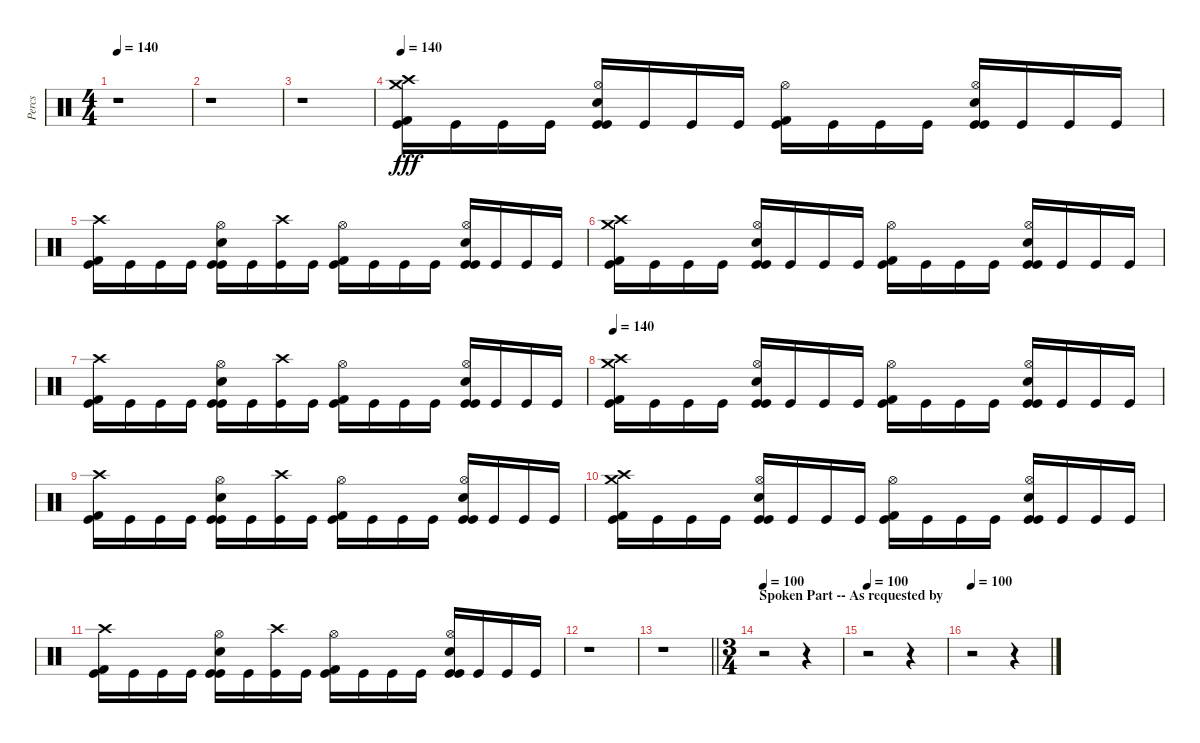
\track ("Percs" "Percs") {instrument percussion}
\staff {score}
\articulation defaults
\ts (4 4)
\tempo 140
\clef neutral
\ks c
r.1{dy f} |
r.1 |
r.1 |
\tempo 140
("Crash medium (hit)" "Crash high (hit)" "Kick (hit) 2" "Kick (hit)").16{dy fff volume 16} "Kick (hit)".16 "Kick (hit)".16 "Kick (hit)".16 ("Hi-Hat (open)" "Electric Snare (hit)" "Kick (hit)" "Kick (hit)").16 "Kick (hit)".16 "Kick (hit)".16 "Kick (hit)".16 ("Hi-Hat (open)" "Kick (hit) 2" "Kick (hit)").16 "Kick (hit)".16 "Kick (hit)".16 "Kick (hit)".16 ("Hi-Hat (open)" "Electric Snare (hit)" "Kick (hit)" "Kick (hit)").16 "Kick (hit)".16 "Kick (hit)".16 "Kick (hit)".16 |
("Crash high (hit)" "Kick (hit) 2" "Kick (hit)").16 "Kick (hit)".16 "Kick (hit)".16 "Kick (hit)".16 ("Hi-Hat (open)" "Electric Snare (hit)" "Kick (hit)" "Kick (hit)").16 "Kick (hit)".16 ("Crash high (hit)" "Kick (hit)").16 "Kick (hit)".16 ("Hi-Hat (open)" "Kick (hit) 2" "Kick (hit)").16 "Kick (hit)".16 "Kick (hit)".16 "Kick (hit)".16 ("Hi-Hat (open)" "Electric Snare (hit)" "Kick (hit)" "Kick (hit)").16 "Kick (hit)".16 "Kick (hit)".16 "Kick (hit)".16 |
("Crash medium (hit)" "Crash high (hit)" "Kick (hit) 2" "Kick (hit)").16 "Kick (hit)".16 "Kick (hit)".16 "Kick (hit)".16 ("Hi-Hat (open)" "Electric Snare (hit)" "Kick (hit)" "Kick (hit)").16 "Kick (hit)".16 "Kick (hit)".16 "Kick (hit)".16 ("Hi-Hat (open)" "Kick (hit) 2" "Kick (hit)").16 "Kick (hit)".16 "Kick (hit)".16 "Kick (hit)".16 ("Hi-Hat (open)" "Electric Snare (hit)" "Kick (hit)" "Kick (hit)").16 "Kick (hit)".16 "Kick (hit)".16 "Kick (hit)".16 |
("Crash high (hit)" "Kick (hit) 2" "Kick (hit)").16 "Kick (hit)".16 "Kick (hit)".16 "Kick (hit)".16 ("Hi-Hat (open)" "Electric Snare (hit)" "Kick (hit)" "Kick (hit)").16 "Kick (hit)".16 ("Crash high (hit)" "Kick (hit)").16 "Kick (hit)".16 ("Hi-Hat (open)" "Kick (hit) 2" "Kick (hit)").16 "Kick (hit)".16 "Kick (hit)".16 "Kick (hit)".16 ("Hi-Hat (open)" "Electric Snare (hit)" "Kick (hit)" "Kick (hit)").16 "Kick (hit)".16 "Kick (hit)".16 "Kick (hit)".16 |
\tempo 140
("Crash medium (hit)" "Crash high (hit)" "Kick (hit) 2" "Kick (hit)").16{volume 16} "Kick (hit)".16 "Kick (hit)".16 "Kick (hit)".16 ("Hi-Hat (open)" "Electric Snare (hit)" "Kick (hit)" "Kick (hit)").16 "Kick (hit)".16 "Kick (hit)".16 "Kick (hit)".16 ("Hi-Hat (open)" "Kick (hit) 2" "Kick (hit)").16 "Kick (hit)".16 "Kick (hit)".16 "Kick (hit)".16 ("Hi-Hat (open)" "Electric Snare (hit)" "Kick (hit)" "Kick (hit)").16 "Kick (hit)".16 "Kick (hit)".16 "Kick (hit)".16 |
("Crash high (hit)" "Kick (hit) 2" "Kick (hit)").16 "Kick (hit)".16 "Kick (hit)".16 "Kick (hit)".16 ("Hi-Hat (open)" "Electric Snare (hit)" "Kick (hit)" "Kick (hit)").16 "Kick (hit)".16 ("Crash high (hit)" "Kick (hit)").16 "Kick (hit)".16 ("Hi-Hat (open)" "Kick (hit) 2" "Kick (hit)").16 "Kick (hit)".16 "Kick (hit)".16 "Kick (hit)".16 ("Hi-Hat (open)" "Electric Snare (hit)" "Kick (hit)" "Kick (hit)").16 "Kick (hit)".16 "Kick (hit)".16 "Kick (hit)".16 |
("Crash medium (hit)" "Crash high (hit)" "Kick (hit) 2" "Kick (hit)").16 "Kick (hit)".16 "Kick (hit)".16 "Kick (hit)".16 ("Hi-Hat (open)" "Electric Snare (hit)" "Kick (hit)" "Kick (hit)").16 "Kick (hit)".16 "Kick (hit)".16 "Kick (hit)".16 ("Hi-Hat (open)" "Kick (hit) 2" "Kick (hit)").16 "Kick (hit)".16 "Kick (hit)".16 "Kick (hit)".16 ("Hi-Hat (open)" "Electric Snare (hit)" "Kick (hit)" "Kick (hit)").16 "Kick (hit)".16 "Kick (hit)".16 "Kick (hit)".16 |
("Crash high (hit)" "Kick (hit) 2" "Kick (hit)").16 "Kick (hit)".16 "Kick (hit)".16 "Kick (hit)".16 ("Hi-Hat (open)" "Electric Snare (hit)" "Kick (hit)" "Kick (hit)").16 "Kick (hit)".16 ("Crash high (hit)" "Kick (hit)").16 "Kick (hit)".16 ("Hi-Hat (open)" "Kick (hit) 2" "Kick (hit)").16 "Kick (hit)".16 "Kick (hit)".16 "Kick (hit)".16 ("Hi-Hat (open)" "Electric Snare (hit)" "Kick (hit)" "Kick (hit)").16 "Kick (hit)".16 "Kick (hit)".16 "Kick (hit)".16 |
r.1 |
\barLineRight lightlight
r.1 |
\ts (3 4)
\section ("" "Spoken Part -- As requested by")
\tempo 100
r.2 r.4 |
\tempo 100
r.2 r.4 |
\tempo 100
r.2 r.4
